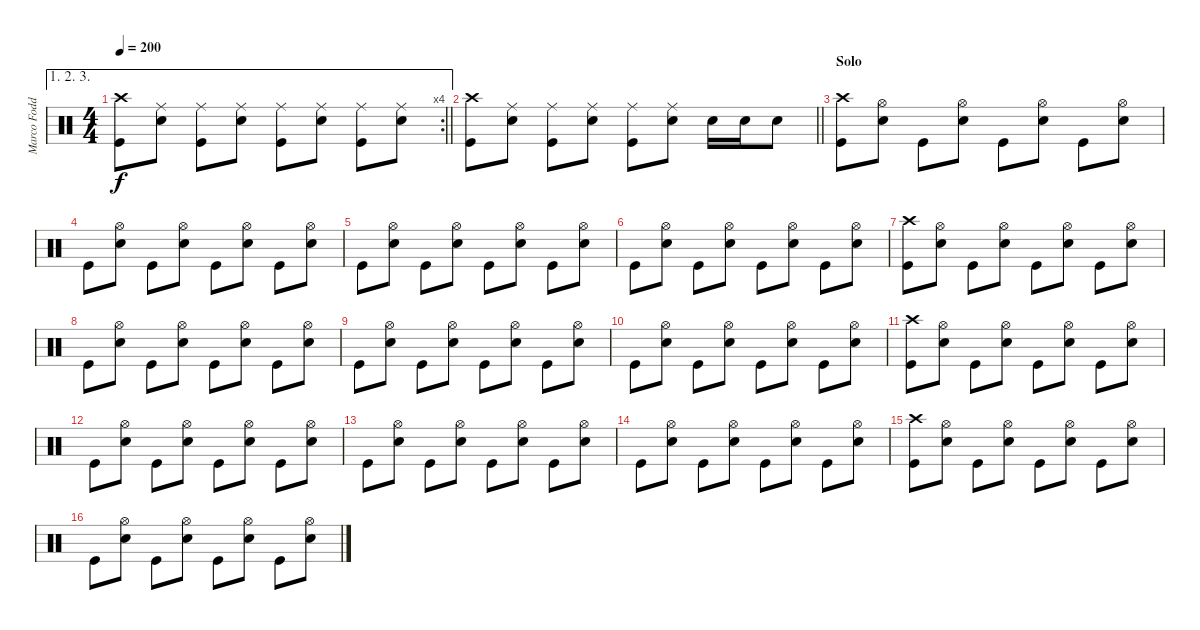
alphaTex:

\track ("Marco Foddis" "Marco Fodd") {instrument percussion}
\staff {score}
\articulation defaults
\ae (1 2 3)
\rc 4
\ts (4 4)
\tempo 200
\clef neutral
\barLineRight lightlight
\ks c
("Crash high (hit)" "Kick (hit)").8{dy f} ("Ride (middle)" "Snare (hit) 2").8 ("Ride (middle)" "Kick (hit)").8 ("Ride (middle)" "Snare (hit) 2").8 ("Ride (middle)" "Kick (hit)").8 ("Ride (middle)" "Snare (hit) 2").8 ("Ride (middle)" "Kick (hit)").8 ("Ride (middle)" "Snare (hit) 2").8 |
\barLineRight lightlight
("Crash high (hit)" "Kick (hit)").8 ("Ride (middle)" "Snare (hit) 2").8 ("Ride (middle)" "Kick (hit)").8 ("Ride (middle)" "Snare (hit) 2").8 ("Ride (middle)" "Kick (hit)").8 ("Ride (middle)" "Snare (hit) 2").8 "Snare (hit) 2".16 "Snare (hit) 2".16 "Snare (hit) 2".8 |
\section ("" "Solo")
("Crash high (hit)" "Kick (hit)").8 ("Hi-Hat (open)" "Snare (hit) 2").8 "Kick (hit)".8 ("Hi-Hat (open)" "Snare (hit) 2").8 "Kick (hit)".8 ("Hi-Hat (open)" "Snare (hit) 2").8 "Kick (hit)".8 ("Hi-Hat (open)" "Snare (hit) 2").8 |
"Kick (hit)".8 ("Hi-Hat (open)" "Snare (hit) 2").8 "Kick (hit)".8 ("Hi-Hat (open)" "Snare (hit) 2").8 "Kick (hit)".8 ("Hi-Hat (open)" "Snare (hit) 2").8 "Kick (hit)".8 ("Hi-Hat (open)" "Snare (hit) 2").8 |
"Kick (hit)".8 ("Hi-Hat (open)" "Snare (hit) 2").8 "Kick (hit)".8 ("Hi-Hat (open)" "Snare (hit) 2").8 "Kick (hit)".8 ("Hi-Hat (open)" "Snare (hit) 2").8 "Kick (hit)".8 ("Hi-Hat (open)" "Snare (hit) 2").8 |
"Kick (hit)".8 ("Hi-Hat (open)" "Snare (hit) 2").8 "Kick (hit)".8 ("Hi-Hat (open)" "Snare (hit) 2").8 "Kick (hit)".8 ("Hi-Hat (open)" "Snare (hit) 2").8 "Kick (hit)".8 ("Hi-Hat (open)" "Snare (hit) 2").8 |
("Crash high (hit)" "Kick (hit)").8 ("Hi-Hat (open)" "Snare (hit) 2").8 "Kick (hit)".8 ("Hi-Hat (open)" "Snare (hit) 2").8 "Kick (hit)".8 ("Hi-Hat (open)" "Snare (hit) 2").8 "Kick (hit)".8 ("Hi-Hat (open)" "Snare (hit) 2").8 |
"Kick (hit)".8 ("Hi-Hat (open)" "Snare (hit) 2").8 "Kick (hit)".8 ("Hi-Hat (open)" "Snare (hit) 2").8 "Kick (hit)".8 ("Hi-Hat (open)" "Snare (hit) 2").8 "Kick (hit)".8 ("Hi-Hat (open)" "Snare (hit) 2").8 |
"Kick (hit)".8 ("Hi-Hat (open)" "Snare (hit) 2").8 "Kick (hit)".8 ("Hi-Hat (open)" "Snare (hit) 2").8 "Kick (hit)".8 ("Hi-Hat (open)" "Snare (hit) 2").8 "Kick (hit)".8 ("Hi-Hat (open)" "Snare (hit) 2").8 |
"Kick (hit)".8 ("Hi-Hat (open)" "Snare (hit) 2").8 "Kick (hit)".8 ("Hi-Hat (open)" "Snare (hit) 2").8 "Kick (hit)".8 ("Hi-Hat (open)" "Snare (hit) 2").8 "Kick (hit)".8 ("Hi-Hat (open)" "Snare (hit) 2").8 |
("Crash high (hit)" "Kick (hit)").8 ("Hi-Hat (open)" "Snare (hit) 2").8 "Kick (hit)".8 ("Hi-Hat (open)" "Snare (hit) 2").8 "Kick (hit)".8 ("Hi-Hat (open)" "Snare (hit) 2").8 "Kick (hit)".8 ("Hi-Hat (open)" "Snare (hit) 2").8 |
"Kick (hit)".8 ("Hi-Hat (open)" "Snare (hit) 2").8 "Kick (hit)".8 ("Hi-Hat (open)" "Snare (hit) 2").8 "Kick (hit)".8 ("Hi-Hat (open)" "Snare (hit) 2").8 "Kick (hit)".8 ("Hi-Hat (open)" "Snare (hit) 2").8 |
"Kick (hit)".8 ("Hi-Hat (open)" "Snare (hit) 2").8 "Kick (hit)".8 ("Hi-Hat (open)" "Snare (hit) 2").8 "Kick (hit)".8 ("Hi-Hat (open)" "Snare (hit) 2").8 "Kick (hit)".8 ("Hi-Hat (open)" "Snare (hit) 2").8 |
"Kick (hit)".8 ("Hi-Hat (open)" "Snare (hit) 2").8 "Kick (hit)".8 ("Hi-Hat (open)" "Snare (hit) 2").8 "Kick (hit)".8 ("Hi-Hat (open)" "Snare (hit) 2").8 "Kick (hit)".8 ("Hi-Hat (open)" "Snare (hit) 2").8 |
("Crash high (hit)" "Kick (hit)").8 ("Hi-Hat (open)" "Snare (hit) 2").8 "Kick (hit)".8 ("Hi-Hat (open)" "Snare (hit) 2").8 "Kick (hit)".8 ("Hi-Hat (open)" "Snare (hit) 2").8 "Kick (hit)".8 ("Hi-Hat (open)" "Snare (hit) 2").8 |
"Kick (hit)".8 ("Hi-Hat (open)" "Snare (hit) 2").8 "Kick (hit)".8 ("Hi-Hat (open)" "Snare (hit) 2").8 "Kick (hit)".8 ("Hi-Hat (open)" "Snare (hit) 2").8 "Kick (hit)".8 ("Hi-Hat (open)" "Snare (hit) 2").8
